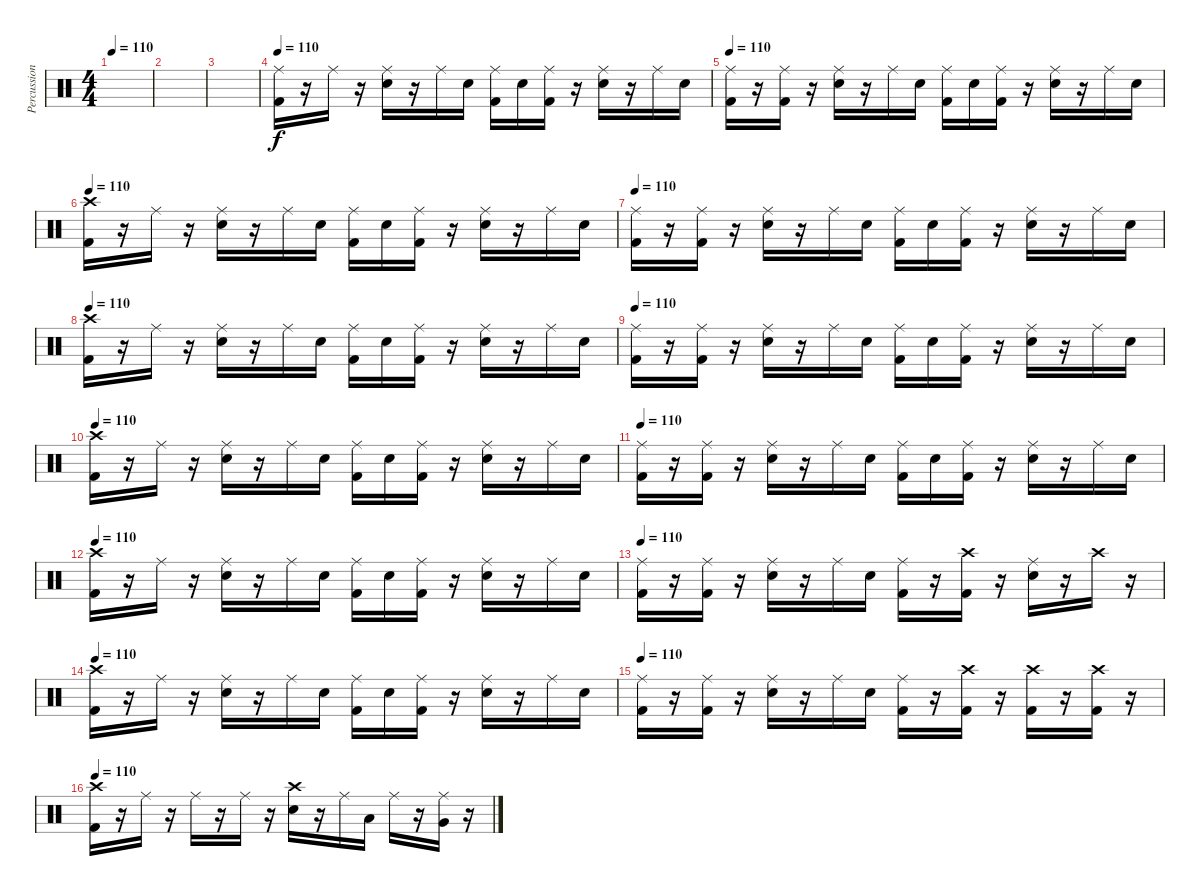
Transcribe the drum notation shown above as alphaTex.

\track ("Percussion" "Percussion") {instrument percussion}
\staff {score}
\articulation defaults
\ts (4 4)
\tempo 110
\clef neutral
\ks c
|
|
|
\tempo 110
("Ride (middle)" "Kick (hit) 2").16 r.16 "Ride (middle)".16 r.16 ("Ride (middle)" "Electric Snare (hit)").16 r.16 "Ride (middle)".16 "Electric Snare (hit)".16 ("Ride (middle)" "Kick (hit) 2").16 "Electric Snare (hit)".16 ("Ride (middle)" "Kick (hit) 2").16 r.16 ("Ride (middle)" "Electric Snare (hit)").16 r.16 "Ride (middle)".16 "Electric Snare (hit)".16 |
\tempo 110
("Ride (middle)" "Kick (hit) 2").16 r.16 ("Ride (middle)" "Kick (hit) 2").16 r.16 ("Ride (middle)" "Electric Snare (hit)").16 r.16 "Ride (middle)".16 "Electric Snare (hit)".16 ("Ride (middle)" "Kick (hit) 2").16 "Electric Snare (hit)".16 ("Ride (middle)" "Kick (hit) 2").16 r.16 ("Ride (middle)" "Electric Snare (hit)").16 r.16 "Ride (middle)".16 "Electric Snare (hit)".16 |
\tempo 110
("Crash high (hit)" "Kick (hit) 2").16 r.16 "Ride (middle)".16 r.16 ("Ride (middle)" "Electric Snare (hit)").16 r.16 "Ride (middle)".16 "Electric Snare (hit)".16 ("Ride (middle)" "Kick (hit) 2").16 "Electric Snare (hit)".16 ("Ride (middle)" "Kick (hit) 2").16 r.16 ("Ride (middle)" "Electric Snare (hit)").16 r.16 "Ride (middle)".16 "Electric Snare (hit)".16 |
\tempo 110
("Ride (middle)" "Kick (hit) 2").16 r.16 ("Ride (middle)" "Kick (hit) 2").16 r.16 ("Ride (middle)" "Electric Snare (hit)").16 r.16 "Ride (middle)".16 "Electric Snare (hit)".16 ("Ride (middle)" "Kick (hit) 2").16 "Electric Snare (hit)".16 ("Ride (middle)" "Kick (hit) 2").16 r.16 ("Ride (middle)" "Electric Snare (hit)").16 r.16 "Ride (middle)".16 "Electric Snare (hit)".16 |
\tempo 110
("Crash high (hit)" "Kick (hit) 2").16 r.16 "Ride (middle)".16 r.16 ("Ride (middle)" "Electric Snare (hit)").16 r.16 "Ride (middle)".16 "Electric Snare (hit)".16 ("Ride (middle)" "Kick (hit) 2").16 "Electric Snare (hit)".16 ("Ride (middle)" "Kick (hit) 2").16 r.16 ("Ride (middle)" "Electric Snare (hit)").16 r.16 "Ride (middle)".16 "Electric Snare (hit)".16 |
\tempo 110
("Ride (middle)" "Kick (hit) 2").16 r.16 ("Ride (middle)" "Kick (hit) 2").16 r.16 ("Ride (middle)" "Electric Snare (hit)").16 r.16 "Ride (middle)".16 "Electric Snare (hit)".16 ("Ride (middle)" "Kick (hit) 2").16 "Electric Snare (hit)".16 ("Ride (middle)" "Kick (hit) 2").16 r.16 ("Ride (middle)" "Electric Snare (hit)").16 r.16 "Ride (middle)".16 "Electric Snare (hit)".16 |
\tempo 110
("Crash high (hit)" "Kick (hit) 2").16 r.16 "Ride (middle)".16 r.16 ("Ride (middle)" "Electric Snare (hit)").16 r.16 "Ride (middle)".16 "Electric Snare (hit)".16 ("Ride (middle)" "Kick (hit) 2").16 "Electric Snare (hit)".16 ("Ride (middle)" "Kick (hit) 2").16 r.16 ("Ride (middle)" "Electric Snare (hit)").16 r.16 "Ride (middle)".16 "Electric Snare (hit)".16 |
\tempo 110
("Ride (middle)" "Kick (hit) 2").16 r.16 ("Ride (middle)" "Kick (hit) 2").16 r.16 ("Ride (middle)" "Electric Snare (hit)").16 r.16 "Ride (middle)".16 "Electric Snare (hit)".16 ("Ride (middle)" "Kick (hit) 2").16 "Electric Snare (hit)".16 ("Ride (middle)" "Kick (hit) 2").16 r.16 ("Ride (middle)" "Electric Snare (hit)").16 r.16 "Ride (middle)".16 "Electric Snare (hit)".16 |
\tempo 110
("Crash high (hit)" "Kick (hit) 2").16 r.16 "Ride (middle)".16 r.16 ("Ride (middle)" "Electric Snare (hit)").16 r.16 "Ride (middle)".16 "Electric Snare (hit)".16 ("Ride (middle)" "Kick (hit) 2").16 "Electric Snare (hit)".16 ("Ride (middle)" "Kick (hit) 2").16 r.16 ("Ride (middle)" "Electric Snare (hit)").16 r.16 "Ride (middle)".16 "Electric Snare (hit)".16 |
\tempo 110
("Ride (middle)" "Kick (hit) 2").16 r.16 ("Ride (middle)" "Kick (hit) 2").16 r.16 ("Ride (middle)" "Electric Snare (hit)").16 r.16 "Ride (middle)".16 "Electric Snare (hit)".16 ("Ride (middle)" "Kick (hit) 2").16 r.16 ("Crash high (hit)" "Kick (hit) 2").16 r.16 ("Ride (middle)" "Electric Snare (hit)").16 r.16 "Crash high (hit)".16 r.16 |
\tempo 110
("Crash high (hit)" "Kick (hit) 2").16 r.16 "Ride (middle)".16 r.16 ("Ride (middle)" "Electric Snare (hit)").16 r.16 "Ride (middle)".16 "Electric Snare (hit)".16 ("Ride (middle)" "Kick (hit) 2").16 "Electric Snare (hit)".16 ("Ride (middle)" "Kick (hit) 2").16 r.16 ("Ride (middle)" "Electric Snare (hit)").16 r.16 "Ride (middle)".16 "Electric Snare (hit)".16 |
\tempo 110
("Ride (middle)" "Kick (hit) 2").16 r.16 ("Ride (middle)" "Kick (hit) 2").16 r.16 ("Ride (middle)" "Electric Snare (hit)").16 r.16 "Ride (middle)".16 "Electric Snare (hit)".16 ("Ride (middle)" "Kick (hit) 2").16 r.16 ("Crash high (hit)" "Kick (hit) 2").16 r.16 ("Crash high (hit)" "Kick (hit) 2").16 r.16 ("Crash high (hit)" "Kick (hit) 2").16 r.16 |
\tempo 110
("Crash high (hit)" "Kick (hit) 2").16 r.16 "Ride (middle)".16 r.16 "Ride (middle)".16 r.16 "Ride (middle)".16 r.16 ("Crash high (hit)" "Electric Snare (hit)").16 r.16 "Ride (middle)".16 "Low Tom (hit)".16 "Ride (middle)".16 r.16 ("Ride (middle)" "Very Low Tom (hit)").16 r.16
